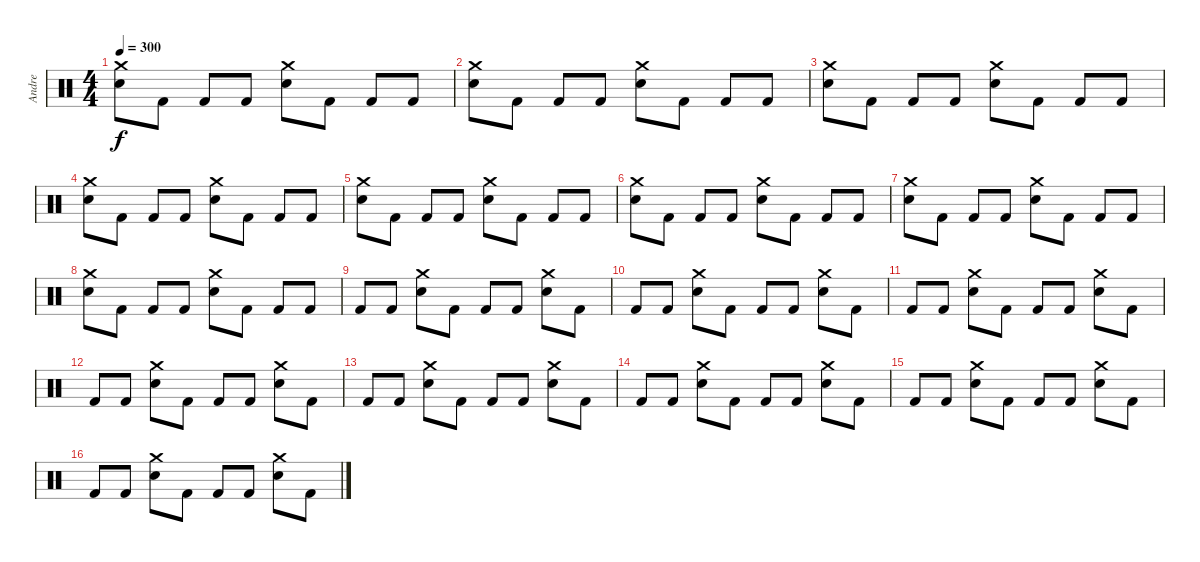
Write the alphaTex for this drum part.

\track ("Andre" "Andre") {instrument percussion}
\staff {score}
\articulation defaults
\ts (4 4)
\tempo 300
\clef neutral
\ks c
("Crash medium (hit)" "Electric Snare (hit)").8{dy f} "Kick (hit) 2".8 "Kick (hit) 2".8 "Kick (hit) 2".8 ("Crash medium (hit)" "Electric Snare (hit)").8 "Kick (hit) 2".8 "Kick (hit) 2".8 "Kick (hit) 2".8 |
("Crash medium (hit)" "Electric Snare (hit)").8 "Kick (hit) 2".8 "Kick (hit) 2".8 "Kick (hit) 2".8 ("Crash medium (hit)" "Electric Snare (hit)").8 "Kick (hit) 2".8 "Kick (hit) 2".8 "Kick (hit) 2".8 |
("Crash medium (hit)" "Electric Snare (hit)").8 "Kick (hit) 2".8 "Kick (hit) 2".8 "Kick (hit) 2".8 ("Crash medium (hit)" "Electric Snare (hit)").8 "Kick (hit) 2".8 "Kick (hit) 2".8 "Kick (hit) 2".8 |
("Crash medium (hit)" "Electric Snare (hit)").8 "Kick (hit) 2".8 "Kick (hit) 2".8 "Kick (hit) 2".8 ("Crash medium (hit)" "Electric Snare (hit)").8 "Kick (hit) 2".8 "Kick (hit) 2".8 "Kick (hit) 2".8 |
("Crash medium (hit)" "Electric Snare (hit)").8 "Kick (hit) 2".8 "Kick (hit) 2".8 "Kick (hit) 2".8 ("Crash medium (hit)" "Electric Snare (hit)").8 "Kick (hit) 2".8 "Kick (hit) 2".8 "Kick (hit) 2".8 |
("Crash medium (hit)" "Electric Snare (hit)").8 "Kick (hit) 2".8 "Kick (hit) 2".8 "Kick (hit) 2".8 ("Crash medium (hit)" "Electric Snare (hit)").8 "Kick (hit) 2".8 "Kick (hit) 2".8 "Kick (hit) 2".8 |
("Crash medium (hit)" "Electric Snare (hit)").8 "Kick (hit) 2".8 "Kick (hit) 2".8 "Kick (hit) 2".8 ("Crash medium (hit)" "Electric Snare (hit)").8 "Kick (hit) 2".8 "Kick (hit) 2".8 "Kick (hit) 2".8 |
("Crash medium (hit)" "Electric Snare (hit)").8 "Kick (hit) 2".8 "Kick (hit) 2".8 "Kick (hit) 2".8 ("Crash medium (hit)" "Electric Snare (hit)").8 "Kick (hit) 2".8 "Kick (hit) 2".8 "Kick (hit) 2".8 |
"Kick (hit) 2".8 "Kick (hit) 2".8 ("Crash medium (hit)" "Electric Snare (hit)").8 "Kick (hit) 2".8 "Kick (hit) 2".8 "Kick (hit) 2".8 ("Crash medium (hit)" "Electric Snare (hit)").8 "Kick (hit) 2".8 |
"Kick (hit) 2".8 "Kick (hit) 2".8 ("Crash medium (hit)" "Electric Snare (hit)").8 "Kick (hit) 2".8 "Kick (hit) 2".8 "Kick (hit) 2".8 ("Crash medium (hit)" "Electric Snare (hit)").8 "Kick (hit) 2".8 |
"Kick (hit) 2".8 "Kick (hit) 2".8 ("Crash medium (hit)" "Electric Snare (hit)").8 "Kick (hit) 2".8 "Kick (hit) 2".8 "Kick (hit) 2".8 ("Crash medium (hit)" "Electric Snare (hit)").8 "Kick (hit) 2".8 |
"Kick (hit) 2".8 "Kick (hit) 2".8 ("Crash medium (hit)" "Electric Snare (hit)").8 "Kick (hit) 2".8 "Kick (hit) 2".8 "Kick (hit) 2".8 ("Crash medium (hit)" "Electric Snare (hit)").8 "Kick (hit) 2".8 |
"Kick (hit) 2".8 "Kick (hit) 2".8 ("Crash medium (hit)" "Electric Snare (hit)").8 "Kick (hit) 2".8 "Kick (hit) 2".8 "Kick (hit) 2".8 ("Crash medium (hit)" "Electric Snare (hit)").8 "Kick (hit) 2".8 |
"Kick (hit) 2".8 "Kick (hit) 2".8 ("Crash medium (hit)" "Electric Snare (hit)").8 "Kick (hit) 2".8 "Kick (hit) 2".8 "Kick (hit) 2".8 ("Crash medium (hit)" "Electric Snare (hit)").8 "Kick (hit) 2".8 |
"Kick (hit) 2".8 "Kick (hit) 2".8 ("Crash medium (hit)" "Electric Snare (hit)").8 "Kick (hit) 2".8 "Kick (hit) 2".8 "Kick (hit) 2".8 ("Crash medium (hit)" "Electric Snare (hit)").8 "Kick (hit) 2".8 |
"Kick (hit) 2".8 "Kick (hit) 2".8 ("Crash medium (hit)" "Electric Snare (hit)").8 "Kick (hit) 2".8 "Kick (hit) 2".8 "Kick (hit) 2".8 ("Crash medium (hit)" "Electric Snare (hit)").8 "Kick (hit) 2".8
